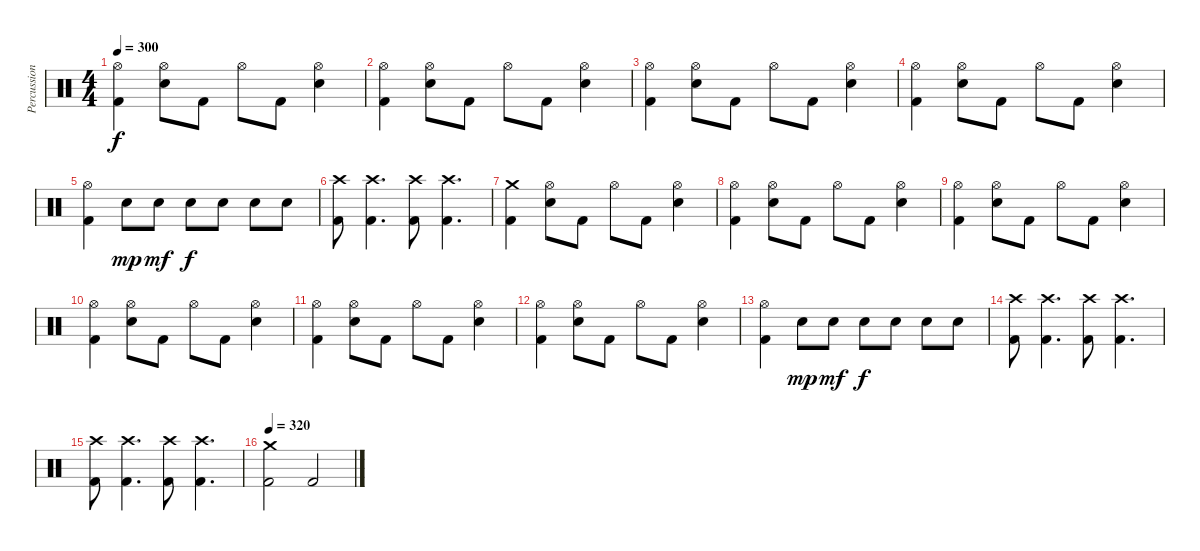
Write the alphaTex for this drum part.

\track ("Percussion" "Percussion") {instrument percussion}
\staff {score}
\articulation defaults
\ts (4 4)
\tempo 300
\clef neutral
\ks c
("Hi-Hat (open)" "Kick (hit) 2").4{dy f} ("Hi-Hat (open)" "Electric Snare (hit)").8 "Kick (hit) 2".8 "Hi-Hat (open)".8 "Kick (hit) 2".8 ("Hi-Hat (open)" "Electric Snare (hit)").4 |
("Hi-Hat (open)" "Kick (hit) 2").4 ("Hi-Hat (open)" "Electric Snare (hit)").8 "Kick (hit) 2".8 "Hi-Hat (open)".8 "Kick (hit) 2".8 ("Hi-Hat (open)" "Electric Snare (hit)").4 |
("Hi-Hat (open)" "Kick (hit) 2").4 ("Hi-Hat (open)" "Electric Snare (hit)").8 "Kick (hit) 2".8 "Hi-Hat (open)".8 "Kick (hit) 2".8 ("Hi-Hat (open)" "Electric Snare (hit)").4 |
("Hi-Hat (open)" "Kick (hit) 2").4 ("Hi-Hat (open)" "Electric Snare (hit)").8 "Kick (hit) 2".8 "Hi-Hat (open)".8 "Kick (hit) 2".8 ("Hi-Hat (open)" "Electric Snare (hit)").4 |
("Hi-Hat (open)" "Kick (hit) 2").4 "Electric Snare (hit)".8{dy mp} "Electric Snare (hit)".8{dy mf} "Electric Snare (hit)".8{dy f} "Electric Snare (hit)".8 "Electric Snare (hit)".8 "Electric Snare (hit)".8 |
("Crash high (hit)" "Kick (hit) 2").8 ("Crash high (hit)" "Kick (hit) 2").4{d} ("Crash high (hit)" "Kick (hit) 2").8 ("Crash high (hit)" "Kick (hit) 2").4{d} |
("Crash medium (hit)" "Kick (hit) 2").4 ("Hi-Hat (open)" "Electric Snare (hit)").8 "Kick (hit) 2".8 "Hi-Hat (open)".8 "Kick (hit) 2".8 ("Hi-Hat (open)" "Electric Snare (hit)").4 |
("Hi-Hat (open)" "Kick (hit) 2").4 ("Hi-Hat (open)" "Electric Snare (hit)").8 "Kick (hit) 2".8 "Hi-Hat (open)".8 "Kick (hit) 2".8 ("Hi-Hat (open)" "Electric Snare (hit)").4 |
("Hi-Hat (open)" "Kick (hit) 2").4 ("Hi-Hat (open)" "Electric Snare (hit)").8 "Kick (hit) 2".8 "Hi-Hat (open)".8 "Kick (hit) 2".8 ("Hi-Hat (open)" "Electric Snare (hit)").4 |
("Hi-Hat (open)" "Kick (hit) 2").4 ("Hi-Hat (open)" "Electric Snare (hit)").8 "Kick (hit) 2".8 "Hi-Hat (open)".8 "Kick (hit) 2".8 ("Hi-Hat (open)" "Electric Snare (hit)").4 |
("Hi-Hat (open)" "Kick (hit) 2").4 ("Hi-Hat (open)" "Electric Snare (hit)").8 "Kick (hit) 2".8 "Hi-Hat (open)".8 "Kick (hit) 2".8 ("Hi-Hat (open)" "Electric Snare (hit)").4 |
("Hi-Hat (open)" "Kick (hit) 2").4 ("Hi-Hat (open)" "Electric Snare (hit)").8 "Kick (hit) 2".8 "Hi-Hat (open)".8 "Kick (hit) 2".8 ("Hi-Hat (open)" "Electric Snare (hit)").4 |
("Hi-Hat (open)" "Kick (hit) 2").4 "Electric Snare (hit)".8{dy mp} "Electric Snare (hit)".8{dy mf} "Electric Snare (hit)".8{dy f} "Electric Snare (hit)".8 "Electric Snare (hit)".8 "Electric Snare (hit)".8 |
("Crash high (hit)" "Kick (hit) 2").8 ("Crash high (hit)" "Kick (hit) 2").4{d} ("Crash high (hit)" "Kick (hit) 2").8 ("Crash high (hit)" "Kick (hit) 2").4{d} |
("Crash high (hit)" "Kick (hit) 2").8 ("Crash high (hit)" "Kick (hit) 2").4{d} ("Crash high (hit)" "Kick (hit) 2").8 ("Crash high (hit)" "Kick (hit) 2").4{d} |
\tempo 320
("Crash medium (hit)" "Kick (hit) 2").2 "Kick (hit) 2".2
